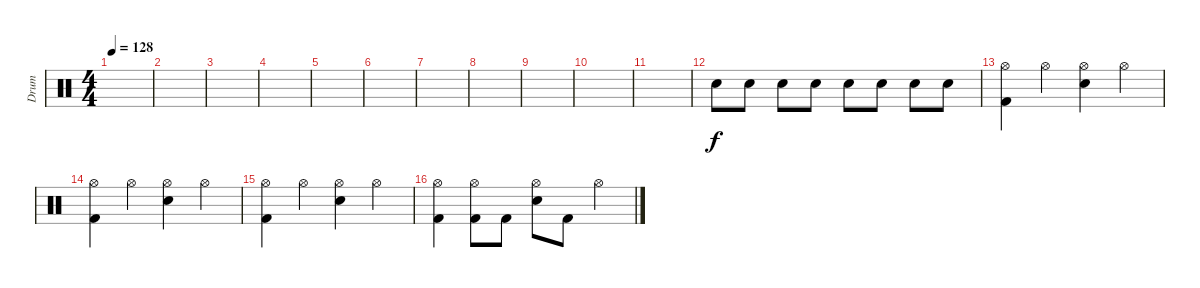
\track ("Drum" "Drum") {instrument percussion}
\staff {score}
\articulation defaults
\ts (4 4)
\tempo 128
\clef neutral
\ks c
|
|
|
|
|
|
|
|
|
|
|
"Snare (hit) 2".8 "Snare (hit) 2".8 "Snare (hit) 2".8 "Snare (hit) 2".8 "Snare (hit) 2".8 "Snare (hit) 2".8 "Snare (hit) 2".8 "Snare (hit) 2".8 |
("Hi-Hat (open)" "Kick (hit) 2").4 "Hi-Hat (open)".4 ("Hi-Hat (open)" "Snare (hit) 2").4 "Hi-Hat (open)".4 |
("Hi-Hat (open)" "Kick (hit) 2").4 "Hi-Hat (open)".4 ("Hi-Hat (open)" "Snare (hit) 2").4 "Hi-Hat (open)".4 |
("Hi-Hat (open)" "Kick (hit) 2").4 "Hi-Hat (open)".4 ("Hi-Hat (open)" "Snare (hit) 2").4 "Hi-Hat (open)".4 |
("Hi-Hat (open)" "Kick (hit) 2").4 ("Hi-Hat (open)" "Kick (hit) 2").8 "Kick (hit) 2".8 ("Hi-Hat (open)" "Snare (hit) 2").8 "Kick (hit) 2".8 "Hi-Hat (open)".4
